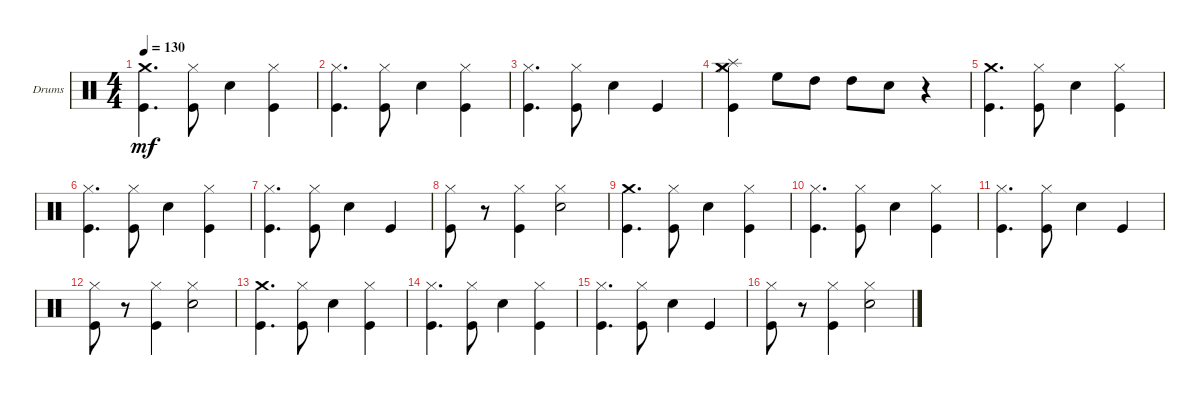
\defaultSystemsLayout 4
\bracketExtendMode groupsimilarinstruments
\firstSystemTrackNameOrientation horizontal
\otherSystemsTrackNameOrientation horizontal
\track ("Drumkit" "Drums") {instrument percussion}
\staff {score}
\articulation defaults
\ts (4 4)
\tempo 130
\clef neutral
\ks c
("Kick (hit)" "Crash medium (hit)").4{d dy mf} ("Kick (hit)" "Hi-Hat (closed)").8 "Snare (hit) 2".4 ("Kick (hit)" "Hi-Hat (closed)").4 |
("Kick (hit)" "Hi-Hat (closed)").4{d} ("Kick (hit)" "Hi-Hat (closed)").8 "Snare (hit) 2".4 ("Kick (hit)" "Hi-Hat (closed)").4 |
("Kick (hit)" "Hi-Hat (closed)").4{d} ("Kick (hit)" "Hi-Hat (closed)").8 "Snare (hit) 2".4 "Kick (hit)".4 |
("Kick (hit)" "Hi-Hat (closed)" "Crash medium (hit)" "Splash (hit)").4 "High Floor Tom (hit)".8 "High Tom (hit)".8 "High Tom (hit)".8 "Snare (hit) 2".8 r.4 |
("Kick (hit)" "Crash medium (hit)").4{d} ("Kick (hit)" "Hi-Hat (closed)").8 "Snare (hit) 2".4 ("Kick (hit)" "Hi-Hat (closed)").4 |
("Kick (hit)" "Hi-Hat (closed)").4{d} ("Kick (hit)" "Hi-Hat (closed)").8 "Snare (hit) 2".4 ("Kick (hit)" "Hi-Hat (closed)").4 |
("Kick (hit)" "Hi-Hat (closed)").4{d} ("Kick (hit)" "Hi-Hat (closed)").8 "Snare (hit) 2".4 "Kick (hit)".4 |
("Kick (hit)" "Hi-Hat (closed)").8 r.8 ("Kick (hit)" "Hi-Hat (closed)").4 ("Snare (hit) 2" "Hi-Hat (closed)").2 |
("Kick (hit)" "Crash medium (hit)").4{d} ("Kick (hit)" "Hi-Hat (closed)").8 "Snare (hit) 2".4 ("Kick (hit)" "Hi-Hat (closed)").4 |
("Kick (hit)" "Hi-Hat (closed)").4{d} ("Kick (hit)" "Hi-Hat (closed)").8 "Snare (hit) 2".4 ("Kick (hit)" "Hi-Hat (closed)").4 |
("Kick (hit)" "Hi-Hat (closed)").4{d} ("Kick (hit)" "Hi-Hat (closed)").8 "Snare (hit) 2".4 "Kick (hit)".4 |
("Kick (hit)" "Hi-Hat (closed)").8 r.8 ("Kick (hit)" "Hi-Hat (closed)").4 ("Snare (hit) 2" "Hi-Hat (closed)").2 |
("Kick (hit)" "Crash medium (hit)").4{d} ("Kick (hit)" "Hi-Hat (closed)").8 "Snare (hit) 2".4 ("Kick (hit)" "Hi-Hat (closed)").4 |
("Kick (hit)" "Hi-Hat (closed)").4{d} ("Kick (hit)" "Hi-Hat (closed)").8 "Snare (hit) 2".4 ("Kick (hit)" "Hi-Hat (closed)").4 |
("Kick (hit)" "Hi-Hat (closed)").4{d} ("Kick (hit)" "Hi-Hat (closed)").8 "Snare (hit) 2".4 "Kick (hit)".4 |
("Kick (hit)" "Hi-Hat (closed)").8 r.8 ("Kick (hit)" "Hi-Hat (closed)").4 ("Snare (hit) 2" "Hi-Hat (closed)").2
